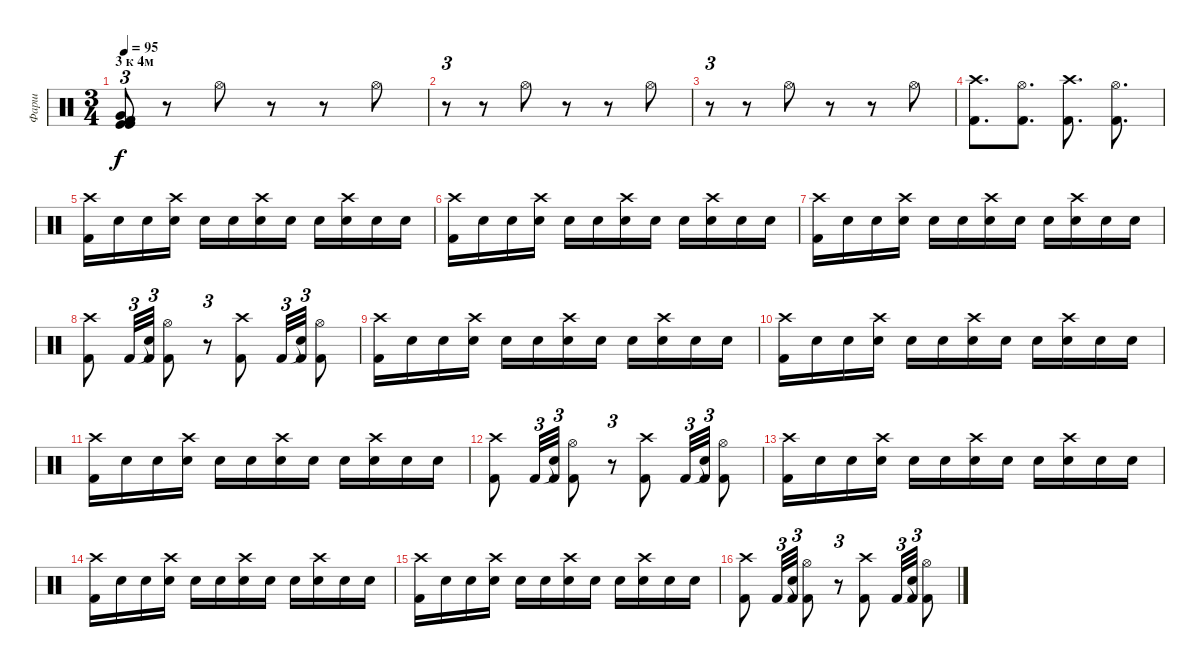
\track ("Фарш" "Фарш") {instrument percussion}
\staff {score}
\articulation defaults
\ts (3 4)
\section ("" "3 к 4м")
\tempo 95
\clef neutral
\ks c
("Kick (hit)" "Kick (hit) 2" "Very Low Tom (hit)" "Kick (hit)" "Kick (hit) 2").8{tu (3 2) dy f} r.8 "Hi-Hat (open)".8 r.8 r.8 "Hi-Hat (open)".8 |
r.8{tu (3 2)} r.8 "Hi-Hat (open)".8 r.8 r.8 "Hi-Hat (open)".8 |
r.8{tu (3 2)} r.8 "Hi-Hat (open)".8 r.8 r.8 "Hi-Hat (open)".8 |
("Crash high (hit)" "Kick (hit) 2").8{d} ("Hi-Hat (open)" "Kick (hit) 2").8{d} ("Crash high (hit)" "Kick (hit) 2").8{d} ("Hi-Hat (open)" "Kick (hit) 2").8{d} |
("Crash high (hit)" "Kick (hit) 2").16 "Snare (hit)".16 "Snare (hit)".16 ("Crash high (hit)" "Snare (hit)").16 "Snare (hit)".16 "Snare (hit)".16 ("Crash high (hit)" "Electric Snare (hit)").16 "Snare (hit)".16 "Snare (hit)".16 ("Crash high (hit)" "Snare (hit)").16 "Snare (hit)".16 "Snare (hit)".16 |
("Crash high (hit)" "Kick (hit) 2").16 "Snare (hit)".16 "Snare (hit)".16 ("Crash high (hit)" "Snare (hit)").16 "Snare (hit)".16 "Snare (hit)".16 ("Crash high (hit)" "Electric Snare (hit)").16 "Snare (hit)".16 "Snare (hit)".16 ("Crash high (hit)" "Snare (hit)").16 "Snare (hit)".16 "Snare (hit)".16 |
("Crash high (hit)" "Kick (hit) 2").16 "Snare (hit)".16 "Snare (hit)".16 ("Crash high (hit)" "Snare (hit)").16 "Snare (hit)".16 "Snare (hit)".16 ("Crash high (hit)" "Electric Snare (hit)").16 "Snare (hit)".16 "Snare (hit)".16 ("Crash high (hit)" "Snare (hit)").16 "Snare (hit)".16 "Snare (hit)".16 |
("Crash high (hit)" "Kick (hit) 2").8 "Kick (hit) 2".32{tu (3 2)} ("Snare (hit)"{t} "Kick (hit) 2").32{tu (3 2)} ("Hi-Hat (open)" "Kick (hit) 2").8 r.8{tu (3 2)} ("Crash high (hit)" "Kick (hit) 2").8 "Kick (hit) 2".32{tu (3 2)} ("Snare (hit)"{t} "Kick (hit) 2").32{tu (3 2)} ("Hi-Hat (open)" "Kick (hit) 2").8 |
("Crash high (hit)" "Kick (hit) 2").16 "Snare (hit)".16 "Snare (hit)".16 ("Crash high (hit)" "Snare (hit)").16 "Snare (hit)".16 "Snare (hit)".16 ("Crash high (hit)" "Electric Snare (hit)").16 "Snare (hit)".16 "Snare (hit)".16 ("Crash high (hit)" "Snare (hit)").16 "Snare (hit)".16 "Snare (hit)".16 |
("Crash high (hit)" "Kick (hit) 2").16 "Snare (hit)".16 "Snare (hit)".16 ("Crash high (hit)" "Snare (hit)").16 "Snare (hit)".16 "Snare (hit)".16 ("Crash high (hit)" "Electric Snare (hit)").16 "Snare (hit)".16 "Snare (hit)".16 ("Crash high (hit)" "Snare (hit)").16 "Snare (hit)".16 "Snare (hit)".16 |
("Crash high (hit)" "Kick (hit) 2").16 "Snare (hit)".16 "Snare (hit)".16 ("Crash high (hit)" "Snare (hit)").16 "Snare (hit)".16 "Snare (hit)".16 ("Crash high (hit)" "Electric Snare (hit)").16 "Snare (hit)".16 "Snare (hit)".16 ("Crash high (hit)" "Snare (hit)").16 "Snare (hit)".16 "Snare (hit)".16 |
("Crash high (hit)" "Kick (hit) 2").8 "Kick (hit) 2".32{tu (3 2)} ("Snare (hit)"{t} "Kick (hit) 2").32{tu (3 2)} ("Hi-Hat (open)" "Kick (hit) 2").8 r.8{tu (3 2)} ("Crash high (hit)" "Kick (hit) 2").8 "Kick (hit) 2".32{tu (3 2)} ("Snare (hit)"{t} "Kick (hit) 2").32{tu (3 2)} ("Hi-Hat (open)" "Kick (hit) 2").8 |
("Crash high (hit)" "Kick (hit) 2").16 "Snare (hit)".16 "Snare (hit)".16 ("Crash high (hit)" "Snare (hit)").16 "Snare (hit)".16 "Snare (hit)".16 ("Crash high (hit)" "Electric Snare (hit)").16 "Snare (hit)".16 "Snare (hit)".16 ("Crash high (hit)" "Snare (hit)").16 "Snare (hit)".16 "Snare (hit)".16 |
("Crash high (hit)" "Kick (hit) 2").16 "Snare (hit)".16 "Snare (hit)".16 ("Crash high (hit)" "Snare (hit)").16 "Snare (hit)".16 "Snare (hit)".16 ("Crash high (hit)" "Electric Snare (hit)").16 "Snare (hit)".16 "Snare (hit)".16 ("Crash high (hit)" "Snare (hit)").16 "Snare (hit)".16 "Snare (hit)".16 |
("Crash high (hit)" "Kick (hit) 2").16 "Snare (hit)".16 "Snare (hit)".16 ("Crash high (hit)" "Snare (hit)").16 "Snare (hit)".16 "Snare (hit)".16 ("Crash high (hit)" "Electric Snare (hit)").16 "Snare (hit)".16 "Snare (hit)".16 ("Crash high (hit)" "Snare (hit)").16 "Snare (hit)".16 "Snare (hit)".16 |
("Crash high (hit)" "Kick (hit) 2").8 "Kick (hit) 2".32{tu (3 2)} ("Snare (hit)"{t} "Kick (hit) 2").32{tu (3 2)} ("Hi-Hat (open)" "Kick (hit) 2").8 r.8{tu (3 2)} ("Crash high (hit)" "Kick (hit) 2").8 "Kick (hit) 2".32{tu (3 2)} ("Snare (hit)"{t} "Kick (hit) 2").32{tu (3 2)} ("Hi-Hat (open)" "Kick (hit) 2").8
